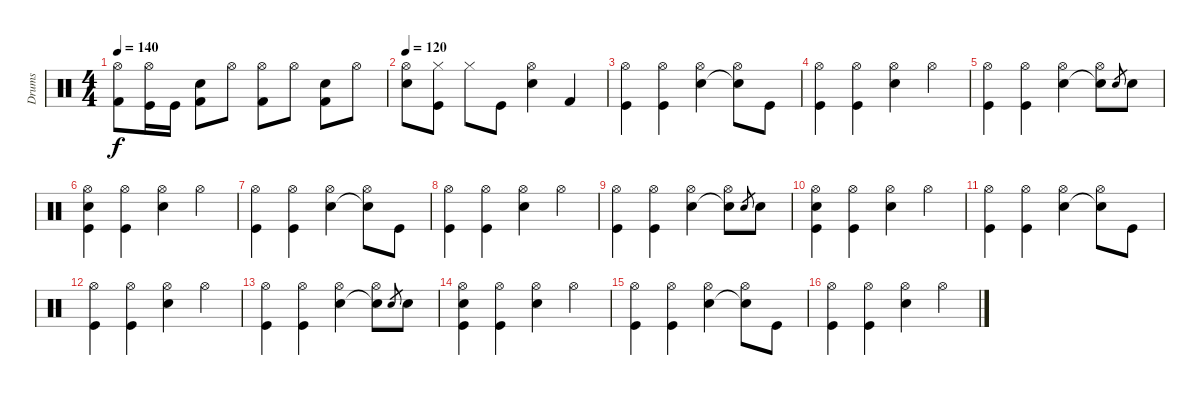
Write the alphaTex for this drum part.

\track ("Drums" "Drums") {instrument percussion}
\staff {score}
\articulation defaults
\ts (4 4)
\tempo 140
\clef neutral
\ks c
("Hi-Hat (open)" "Kick (hit) 2").8{dy f} ("Hi-Hat (open)" "Kick (hit)").16 "Kick (hit)".16 ("Electric Snare (hit)" "Kick (hit) 2").8 "Hi-Hat (open)".8 ("Hi-Hat (open)" "Kick (hit) 2").8 "Hi-Hat (open)".8 ("Electric Snare (hit)" "Kick (hit) 2").8 "Hi-Hat (open)".8 |
\tempo 120
("Hi-Hat (open)" "Electric Snare (hit)").8 ("Hi-Hat (closed)" "Kick (hit)").8 "Hi-Hat (closed)".8 "Kick (hit)".8 ("Hi-Hat (open)" "Electric Snare (hit)").4 "Kick (hit) 2".4 |
("Hi-Hat (open)" "Kick (hit)").4 ("Hi-Hat (open)" "Kick (hit)").4 ("Hi-Hat (open)" "Electric Snare (hit)").4 ("Hi-Hat (open)" "Snare (hit)"{t}).8 "Kick (hit)".8 |
("Hi-Hat (open)" "Kick (hit)").4 ("Hi-Hat (open)" "Kick (hit)").4 ("Hi-Hat (open)" "Electric Snare (hit)").4 "Hi-Hat (open)".4 |
("Hi-Hat (open)" "Kick (hit)").4 ("Hi-Hat (open)" "Kick (hit)").4 ("Hi-Hat (open)" "Electric Snare (hit)").4 ("Hi-Hat (open)" "Snare (hit)"{t}).8 "Snare (hit) 2".8{gr} "Snare (hit) 2".8 |
("Hi-Hat (open)" "Kick (hit)" "Snare (hit) 2").4 ("Hi-Hat (open)" "Kick (hit)").4 ("Hi-Hat (open)" "Electric Snare (hit)").4 "Hi-Hat (open)".4 |
("Hi-Hat (open)" "Kick (hit)").4 ("Hi-Hat (open)" "Kick (hit)").4 ("Hi-Hat (open)" "Electric Snare (hit)").4 ("Hi-Hat (open)" "Snare (hit)"{t}).8 "Kick (hit)".8 |
("Hi-Hat (open)" "Kick (hit)").4 ("Hi-Hat (open)" "Kick (hit)").4 ("Hi-Hat (open)" "Electric Snare (hit)").4 "Hi-Hat (open)".4 |
("Hi-Hat (open)" "Kick (hit)").4 ("Hi-Hat (open)" "Kick (hit)").4 ("Hi-Hat (open)" "Electric Snare (hit)").4 ("Hi-Hat (open)" "Snare (hit)"{t}).8 "Snare (hit) 2".8{gr} "Snare (hit) 2".8 |
("Hi-Hat (open)" "Kick (hit)" "Snare (hit) 2").4 ("Hi-Hat (open)" "Kick (hit)").4 ("Hi-Hat (open)" "Electric Snare (hit)").4 "Hi-Hat (open)".4 |
("Hi-Hat (open)" "Kick (hit)").4 ("Hi-Hat (open)" "Kick (hit)").4 ("Hi-Hat (open)" "Electric Snare (hit)").4 ("Hi-Hat (open)" "Snare (hit)"{t}).8 "Kick (hit)".8 |
("Hi-Hat (open)" "Kick (hit)").4 ("Hi-Hat (open)" "Kick (hit)").4 ("Hi-Hat (open)" "Electric Snare (hit)").4 "Hi-Hat (open)".4 |
("Hi-Hat (open)" "Kick (hit)").4 ("Hi-Hat (open)" "Kick (hit)").4 ("Hi-Hat (open)" "Electric Snare (hit)").4 ("Hi-Hat (open)" "Snare (hit)"{t}).8 "Snare (hit) 2".8{gr} "Snare (hit) 2".8 |
("Hi-Hat (open)" "Kick (hit)" "Snare (hit) 2").4 ("Hi-Hat (open)" "Kick (hit)").4 ("Hi-Hat (open)" "Electric Snare (hit)").4 "Hi-Hat (open)".4 |
("Hi-Hat (open)" "Kick (hit)").4 ("Hi-Hat (open)" "Kick (hit)").4 ("Hi-Hat (open)" "Electric Snare (hit)").4 ("Hi-Hat (open)" "Snare (hit)"{t}).8 "Kick (hit)".8 |
("Hi-Hat (open)" "Kick (hit)").4 ("Hi-Hat (open)" "Kick (hit)").4 ("Hi-Hat (open)" "Electric Snare (hit)").4 "Hi-Hat (open)".4
